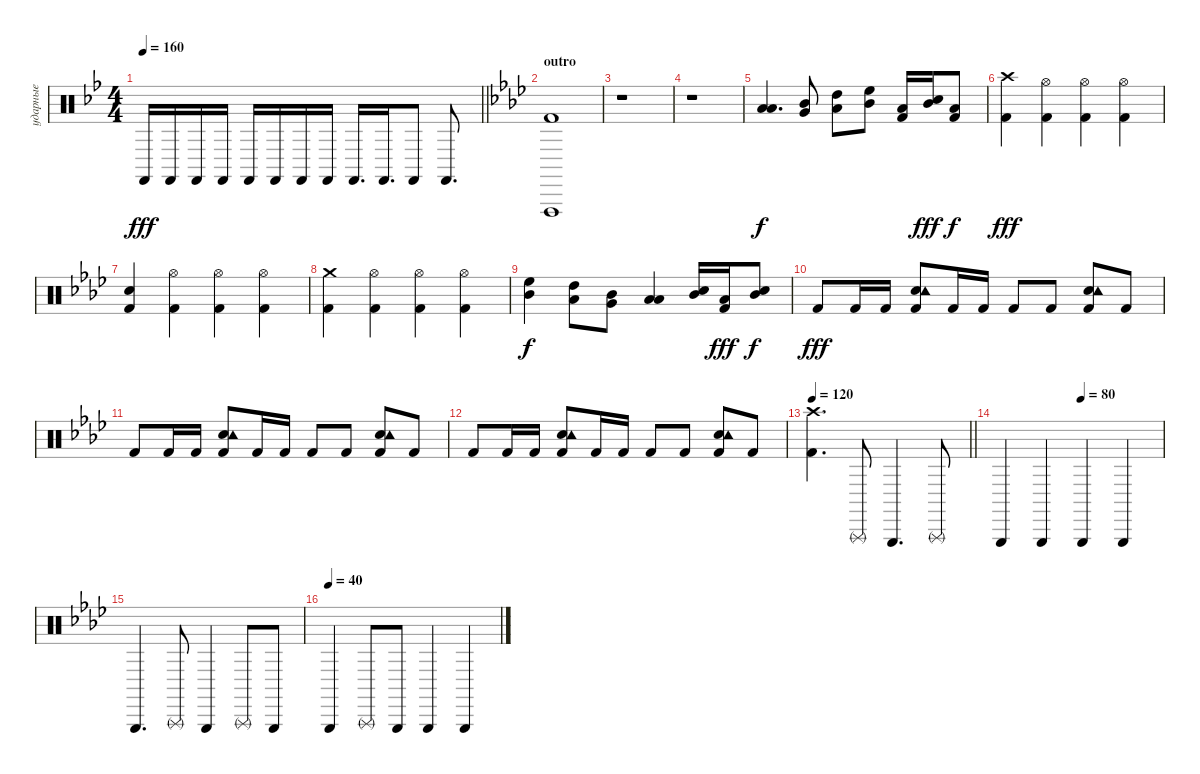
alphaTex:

\track ("ударные" "ударные") {instrument percussion}
\staff {score}
\articulation defaults
\ts (4 4)
\tempo 160
\clef neutral
\barLineRight lightlight
\ks gminor "Castanets (hit)".16{dy fff} "Castanets (hit)".16 "Castanets (hit)".16 "Castanets (hit)".16 "Castanets (hit)".16 "Castanets (hit)".16 "Castanets (hit)".16 "Castanets (hit)".16 "Castanets (hit)".16{d} "Castanets (hit)".16{d} "Castanets (hit)".8 "Castanets (hit)".8{d}
|
\section ("" "outro")
\ks fminor
("Vibraslap (hit)" "Kick (hit) 2").1 |
r.1 |
r.1 |
("Low Floor Tom (hit)" "Low Floor Tom (hit)").4{d dy f} ("Mid Tom (hit)" "Very Low Tom (hit)").8 ("High Tom (hit)" "Low Tom (hit)").8 ("Mid Tom (hit)" "High Floor Tom (hit)").8 ("Low Tom (hit)" "Kick (hit) 2").16 ("Mid Tom (hit)" "Electric Snare (hit)").16{dy fff} ("Low Tom (hit)" "Kick (hit) 2").8{dy f} |
("Crash high (hit)" "Kick (hit) 2").4{dy fff} ("Hi-Hat (open)" "Kick (hit) 2").4 ("Hi-Hat (open)" "Kick (hit) 2").4 ("Hi-Hat (open)" "Kick (hit) 2").4 |
("Electric Snare (hit)" "Kick (hit) 2").4 ("Hi-Hat (open)" "Kick (hit) 2").4 ("Hi-Hat (open)" "Kick (hit) 2").4 ("Hi-Hat (open)" "Kick (hit) 2").4 |
("Crash medium (hit)" "Kick (hit) 2").4 ("Hi-Hat (open)" "Kick (hit) 2").4 ("Hi-Hat (open)" "Kick (hit) 2").4 ("Hi-Hat (open)" "Kick (hit) 2").4 |
("Mid Tom (hit)" "High Floor Tom (hit)").4{dy f} ("Low Tom (hit)" "High Tom (hit)").8 ("Very Low Tom (hit)" "Mid Tom (hit)").8 ("Low Floor Tom (hit)" "Low Tom (hit)").4 ("Mid Tom (hit)" "Electric Snare (hit)").16 ("Low Tom (hit)" "Kick (hit) 2").16{dy fff} ("Mid Tom (hit)" "Electric Snare (hit)").8{dy f} |
"Kick (hit) 2".8{dy fff} "Kick (hit) 2".16 "Kick (hit) 2".16 ("Electric Snare (hit)" "Tambourine (hit)" "Kick (hit) 2").8 "Kick (hit) 2".16 "Kick (hit) 2".16 "Kick (hit) 2".8 "Kick (hit) 2".8 ("Electric Snare (hit)" "Tambourine (hit)" "Kick (hit) 2").8 "Kick (hit) 2".8 |
"Kick (hit) 2".8 "Kick (hit) 2".16 "Kick (hit) 2".16 ("Electric Snare (hit)" "Tambourine (hit)" "Kick (hit) 2").8 "Kick (hit) 2".16 "Kick (hit) 2".16 "Kick (hit) 2".8 "Kick (hit) 2".8 ("Electric Snare (hit)" "Tambourine (hit)" "Kick (hit) 2").8 "Kick (hit) 2".8 |
"Kick (hit) 2".8 "Kick (hit) 2".16 "Kick (hit) 2".16 ("Electric Snare (hit)" "Tambourine (hit)" "Kick (hit) 2").8 "Kick (hit) 2".16 "Kick (hit) 2".16 "Kick (hit) 2".8 "Kick (hit) 2".8 ("Electric Snare (hit)" "Tambourine (hit)" "Kick (hit) 2").8 "Kick (hit) 2".8 |
\tempo 120
\barLineRight lightlight
("Crash high (hit)" "Kick (hit) 2").4{d} "Triangle (rnute)".8 "Triangle (hit)".4{d} "Triangle (rnute)".8 |
\tempo (80 0.5)
"Triangle (hit)".4 "Triangle (hit)".4 "Triangle (hit)".4 "Triangle (hit)".4 |
"Triangle (hit)".4{d} "Triangle (rnute)".8 "Triangle (hit)".4 "Triangle (rnute)".8 "Triangle (hit)".8 |
\tempo (40)
"Triangle (hit)".4 "Triangle (rnute)".8 "Triangle (hit)".8 "Triangle (hit)".4 "Triangle (hit)".4
